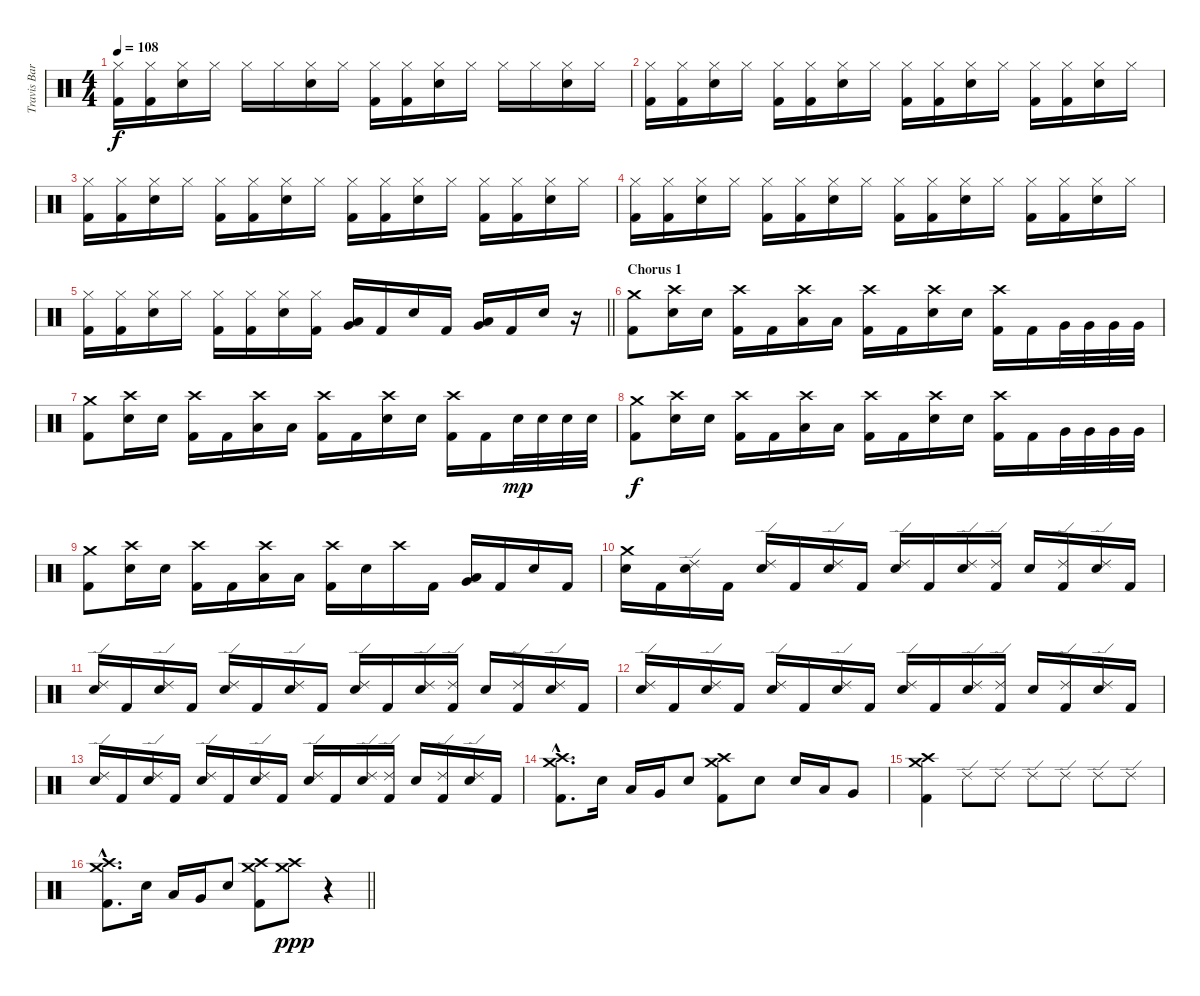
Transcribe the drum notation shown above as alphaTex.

\track ("Travis Barker" "Travis Bar") {instrument percussion}
\staff {score}
\articulation defaults
\ts (4 4)
\tempo 108
\clef neutral
\ks c
("Hi-Hat (closed)" "Kick (hit) 2").16{dy f} ("Hi-Hat (closed)" "Kick (hit) 2").16 ("Hi-Hat (closed)" "Electric Snare (hit)").16 "Hi-Hat (closed)".16 "Hi-Hat (closed)".16 "Hi-Hat (closed)".16 ("Hi-Hat (closed)" "Electric Snare (hit)").16 "Hi-Hat (closed)".16 ("Hi-Hat (closed)" "Kick (hit) 2").16 ("Hi-Hat (closed)" "Kick (hit) 2").16 ("Hi-Hat (closed)" "Electric Snare (hit)").16 "Hi-Hat (closed)".16 "Hi-Hat (closed)".16 "Hi-Hat (closed)".16 ("Hi-Hat (closed)" "Electric Snare (hit)").16 "Hi-Hat (closed)".16 |
("Hi-Hat (closed)" "Kick (hit) 2").16 ("Hi-Hat (closed)" "Kick (hit) 2").16 ("Hi-Hat (closed)" "Electric Snare (hit)").16 "Hi-Hat (closed)".16 ("Hi-Hat (closed)" "Kick (hit) 2").16 ("Hi-Hat (closed)" "Kick (hit) 2").16 ("Hi-Hat (closed)" "Electric Snare (hit)").16 "Hi-Hat (closed)".16 ("Hi-Hat (closed)" "Kick (hit) 2").16 ("Hi-Hat (closed)" "Kick (hit) 2").16 ("Hi-Hat (closed)" "Electric Snare (hit)").16 "Hi-Hat (closed)".16 ("Hi-Hat (closed)" "Kick (hit) 2").16 ("Hi-Hat (closed)" "Kick (hit) 2").16 ("Hi-Hat (closed)" "Electric Snare (hit)").16 "Hi-Hat (closed)".16 |
("Hi-Hat (closed)" "Kick (hit) 2").16 ("Hi-Hat (closed)" "Kick (hit) 2").16 ("Hi-Hat (closed)" "Electric Snare (hit)").16 "Hi-Hat (closed)".16 ("Hi-Hat (closed)" "Kick (hit) 2").16 ("Hi-Hat (closed)" "Kick (hit) 2").16 ("Hi-Hat (closed)" "Electric Snare (hit)").16 "Hi-Hat (closed)".16 ("Hi-Hat (closed)" "Kick (hit) 2").16 ("Hi-Hat (closed)" "Kick (hit) 2").16 ("Hi-Hat (closed)" "Electric Snare (hit)").16 "Hi-Hat (closed)".16 ("Hi-Hat (closed)" "Kick (hit) 2").16 ("Hi-Hat (closed)" "Kick (hit) 2").16 ("Hi-Hat (closed)" "Electric Snare (hit)").16 "Hi-Hat (closed)".16 |
("Hi-Hat (closed)" "Kick (hit) 2").16 ("Hi-Hat (closed)" "Kick (hit) 2").16 ("Hi-Hat (closed)" "Electric Snare (hit)").16 "Hi-Hat (closed)".16 ("Hi-Hat (closed)" "Kick (hit) 2").16 ("Hi-Hat (closed)" "Kick (hit) 2").16 ("Hi-Hat (closed)" "Electric Snare (hit)").16 "Hi-Hat (closed)".16 ("Hi-Hat (closed)" "Kick (hit) 2").16 ("Hi-Hat (closed)" "Kick (hit) 2").16 ("Hi-Hat (closed)" "Electric Snare (hit)").16 "Hi-Hat (closed)".16 ("Hi-Hat (closed)" "Kick (hit) 2").16 ("Hi-Hat (closed)" "Kick (hit) 2").16 ("Hi-Hat (closed)" "Electric Snare (hit)").16 "Hi-Hat (closed)".16 |
\barLineRight lightlight
("Hi-Hat (closed)" "Kick (hit) 2").16 ("Hi-Hat (closed)" "Kick (hit) 2").16 ("Hi-Hat (closed)" "Electric Snare (hit)").16 "Hi-Hat (closed)".16 ("Hi-Hat (closed)" "Kick (hit) 2").16 ("Hi-Hat (closed)" "Kick (hit) 2").16 ("Hi-Hat (closed)" "Electric Snare (hit)").16 ("Hi-Hat (closed)" "Kick (hit) 2").16 ("Low Tom (hit)" "Very Low Tom (hit)").16 "Kick (hit) 2".16 "Electric Snare (hit)".16 "Kick (hit) 2".16 ("Low Tom (hit)" "Very Low Tom (hit)").16 "Kick (hit) 2".16 "Electric Snare (hit)".16 r.16 |
\section ("" "Chorus 1")
("Crash medium (hit)" "Kick (hit) 2").8 ("Crash high (hit)" "Electric Snare (hit)").16 "Electric Snare (hit)".16 ("Crash high (hit)" "Kick (hit) 2").16 "Kick (hit) 2".16 ("Crash high (hit)" "Low Tom (hit)").16 "Low Tom (hit)".16 ("Crash high (hit)" "Kick (hit) 2").16 "Kick (hit) 2".16 ("Crash high (hit)" "Electric Snare (hit)").16 "Electric Snare (hit)".16 ("Crash high (hit)" "Kick (hit) 2").16 "Kick (hit) 2".16 "Very Low Tom (hit)".32 "Very Low Tom (hit)".32 "Very Low Tom (hit)".32 "Very Low Tom (hit)".32 |
("Crash medium (hit)" "Kick (hit) 2").8 ("Crash high (hit)" "Electric Snare (hit)").16 "Electric Snare (hit)".16 ("Crash high (hit)" "Kick (hit) 2").16 "Kick (hit) 2".16 ("Crash high (hit)" "Low Tom (hit)").16 "Low Tom (hit)".16 ("Crash high (hit)" "Kick (hit) 2").16 "Kick (hit) 2".16 ("Crash high (hit)" "Electric Snare (hit)").16 "Electric Snare (hit)".16 ("Crash high (hit)" "Kick (hit) 2").16 "Kick (hit) 2".16 "Electric Snare (hit)".32{dy mp} "Electric Snare (hit)".32 "Electric Snare (hit)".32 "Electric Snare (hit)".32 |
("Crash medium (hit)" "Kick (hit) 2").8{dy f} ("Crash high (hit)" "Electric Snare (hit)").16 "Electric Snare (hit)".16 ("Crash high (hit)" "Kick (hit) 2").16 "Kick (hit) 2".16 ("Crash high (hit)" "Low Tom (hit)").16 "Low Tom (hit)".16 ("Crash high (hit)" "Kick (hit) 2").16 "Kick (hit) 2".16 ("Crash high (hit)" "Electric Snare (hit)").16 "Electric Snare (hit)".16 ("Crash high (hit)" "Kick (hit) 2").16 "Kick (hit) 2".16 "Very Low Tom (hit)".32 "Very Low Tom (hit)".32 "Very Low Tom (hit)".32 "Very Low Tom (hit)".32 |
("Crash medium (hit)" "Kick (hit) 2").8 ("Crash high (hit)" "Electric Snare (hit)").16 "Electric Snare (hit)".16 ("Crash high (hit)" "Kick (hit) 2").16 "Kick (hit) 2".16 ("Crash high (hit)" "Low Tom (hit)").16 "Low Tom (hit)".16 ("Crash high (hit)" "Kick (hit) 2").16 "Electric Snare (hit)".16 "Crash high (hit)".16 "Kick (hit) 2".16 ("Low Tom (hit)" "Very Low Tom (hit)").16 "Kick (hit) 2".16 "Electric Snare (hit)".16 "Kick (hit) 2".16 |
("Crash medium (hit)" "Electric Snare (hit)").16 "Kick (hit) 2".16 ("Ride (edge) 2" "Electric Snare (hit)").16 "Kick (hit) 2".16 ("Ride (edge) 2" "Electric Snare (hit)").16 "Kick (hit) 2".16 ("Ride (edge) 2" "Electric Snare (hit)").16 "Kick (hit) 2".16 ("Ride (edge) 2" "Electric Snare (hit)").16 "Kick (hit) 2".16 ("Ride (edge) 2" "Electric Snare (hit)").16 ("Ride (edge) 2" "Kick (hit) 2").16 "Electric Snare (hit)".16 ("Ride (edge) 2" "Kick (hit) 2").16 ("Ride (edge) 2" "Electric Snare (hit)").16 "Kick (hit) 2".16 |
("Ride (edge) 2" "Electric Snare (hit)").16 "Kick (hit) 2".16 ("Ride (edge) 2" "Electric Snare (hit)").16 "Kick (hit) 2".16 ("Ride (edge) 2" "Electric Snare (hit)").16 "Kick (hit) 2".16 ("Ride (edge) 2" "Electric Snare (hit)").16 "Kick (hit) 2".16 ("Ride (edge) 2" "Electric Snare (hit)").16 "Kick (hit) 2".16 ("Ride (edge) 2" "Electric Snare (hit)").16 ("Ride (edge) 2" "Kick (hit) 2").16 "Electric Snare (hit)".16 ("Ride (edge) 2" "Kick (hit) 2").16 ("Ride (edge) 2" "Electric Snare (hit)").16 "Kick (hit) 2".16 |
("Ride (edge) 2" "Electric Snare (hit)").16 "Kick (hit) 2".16 ("Ride (edge) 2" "Electric Snare (hit)").16 "Kick (hit) 2".16 ("Ride (edge) 2" "Electric Snare (hit)").16 "Kick (hit) 2".16 ("Ride (edge) 2" "Electric Snare (hit)").16 "Kick (hit) 2".16 ("Ride (edge) 2" "Electric Snare (hit)").16 "Kick (hit) 2".16 ("Ride (edge) 2" "Electric Snare (hit)").16 ("Ride (edge) 2" "Kick (hit) 2").16 "Electric Snare (hit)".16 ("Ride (edge) 2" "Kick (hit) 2").16 ("Ride (edge) 2" "Electric Snare (hit)").16 "Kick (hit) 2".16 |
("Ride (edge) 2" "Electric Snare (hit)").16 "Kick (hit) 2".16 ("Ride (edge) 2" "Electric Snare (hit)").16 "Kick (hit) 2".16 ("Ride (edge) 2" "Electric Snare (hit)").16 "Kick (hit) 2".16 ("Ride (edge) 2" "Electric Snare (hit)").16 "Kick (hit) 2".16 ("Ride (edge) 2" "Electric Snare (hit)").16 "Kick (hit) 2".16 ("Ride (edge) 2" "Electric Snare (hit)").16 ("Ride (edge) 2" "Kick (hit) 2").16 "Electric Snare (hit)".16 ("Ride (edge) 2" "Kick (hit) 2").16 ("Ride (edge) 2" "Electric Snare (hit)").16 "Kick (hit) 2".16 |
("Crash medium (hit)"{hac} "Crash high (hit)"{hac} "Kick (hit) 2"{hac}).8{d} "Electric Snare (hit)".16 "Low Tom (hit)".16 "Very Low Tom (hit)".16 "Electric Snare (hit)".8 ("Crash medium (hit)" "Crash high (hit)" "Kick (hit) 2").8 "Electric Snare (hit)".8 "Electric Snare (hit)".16 "Low Tom (hit)".16 "Very Low Tom (hit)".8 |
("Crash medium (hit)" "Crash high (hit)" "Kick (hit) 2").4 "Ride (edge) 2".8 "Ride (edge) 2".8 "Ride (edge) 2".8 "Ride (edge) 2".8 "Ride (edge) 2".8 "Ride (edge) 2".8 |
\barLineRight lightlight
("Crash medium (hit)"{hac} "Crash high (hit)"{hac} "Kick (hit) 2"{hac}).8{d} "Electric Snare (hit)".16 "Low Tom (hit)".16 "Very Low Tom (hit)".16 "Electric Snare (hit)".8 ("Crash medium (hit)" "Crash high (hit)" "Kick (hit) 2").8 ("Crash medium (hit)" "Crash high (hit)").8{dy ppp} r.4
